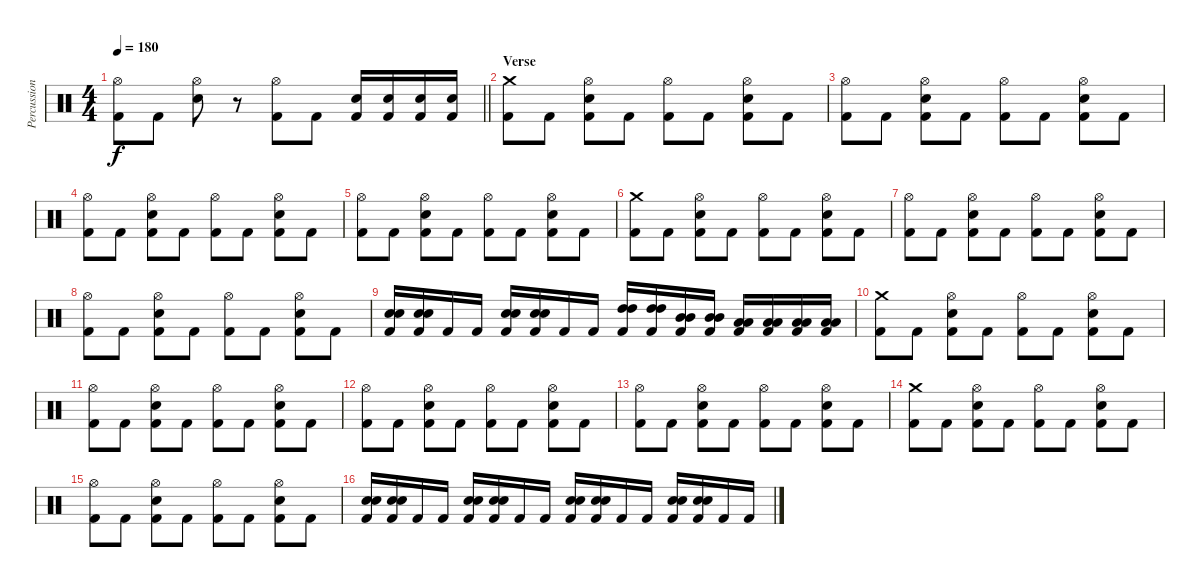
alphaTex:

\track ("Percussion" "Percussion") {instrument percussion}
\staff {score}
\articulation defaults
\ts (4 4)
\tempo 180
\clef neutral
\barLineRight lightlight
\ks c
("Hi-Hat (open)" "Kick (hit) 2").8{dy f} "Kick (hit) 2".8 ("Hi-Hat (open)" "Electric Snare (hit)").8 r.8 ("Hi-Hat (open)" "Kick (hit) 2").8 "Kick (hit) 2".8 ("Electric Snare (hit)" "Kick (hit) 2").16 ("Electric Snare (hit)" "Kick (hit) 2").16 ("Electric Snare (hit)" "Kick (hit) 2").16 ("Electric Snare (hit)" "Kick (hit) 2").16 |
\section ("" "Verse")
("Crash medium (hit)" "Kick (hit) 2").8 "Kick (hit) 2".8 ("Hi-Hat (open)" "Electric Snare (hit)" "Kick (hit) 2").8 "Kick (hit) 2".8 ("Hi-Hat (open)" "Kick (hit) 2").8 "Kick (hit) 2".8 ("Hi-Hat (open)" "Electric Snare (hit)" "Kick (hit) 2").8 "Kick (hit) 2".8 |
("Hi-Hat (open)" "Kick (hit) 2").8 "Kick (hit) 2".8 ("Hi-Hat (open)" "Electric Snare (hit)" "Kick (hit) 2").8 "Kick (hit) 2".8 ("Hi-Hat (open)" "Kick (hit) 2").8 "Kick (hit) 2".8 ("Hi-Hat (open)" "Electric Snare (hit)" "Kick (hit) 2").8 "Kick (hit) 2".8 |
("Hi-Hat (open)" "Kick (hit) 2").8 "Kick (hit) 2".8 ("Hi-Hat (open)" "Electric Snare (hit)" "Kick (hit) 2").8 "Kick (hit) 2".8 ("Hi-Hat (open)" "Kick (hit) 2").8 "Kick (hit) 2".8 ("Hi-Hat (open)" "Electric Snare (hit)" "Kick (hit) 2").8 "Kick (hit) 2".8 |
("Hi-Hat (open)" "Kick (hit) 2").8 "Kick (hit) 2".8 ("Hi-Hat (open)" "Electric Snare (hit)" "Kick (hit) 2").8 "Kick (hit) 2".8 ("Hi-Hat (open)" "Kick (hit) 2").8 "Kick (hit) 2".8 ("Hi-Hat (open)" "Electric Snare (hit)" "Kick (hit) 2").8 "Kick (hit) 2".8 |
("Crash medium (hit)" "Kick (hit) 2").8 "Kick (hit) 2".8 ("Hi-Hat (open)" "Electric Snare (hit)" "Kick (hit) 2").8 "Kick (hit) 2".8 ("Hi-Hat (open)" "Kick (hit) 2").8 "Kick (hit) 2".8 ("Hi-Hat (open)" "Electric Snare (hit)" "Kick (hit) 2").8 "Kick (hit) 2".8 |
("Hi-Hat (open)" "Kick (hit) 2").8 "Kick (hit) 2".8 ("Hi-Hat (open)" "Electric Snare (hit)" "Kick (hit) 2").8 "Kick (hit) 2".8 ("Hi-Hat (open)" "Kick (hit) 2").8 "Kick (hit) 2".8 ("Hi-Hat (open)" "Electric Snare (hit)" "Kick (hit) 2").8 "Kick (hit) 2".8 |
("Hi-Hat (open)" "Kick (hit) 2").8 "Kick (hit) 2".8 ("Hi-Hat (open)" "Electric Snare (hit)" "Kick (hit) 2").8 "Kick (hit) 2".8 ("Hi-Hat (open)" "Kick (hit) 2").8 "Kick (hit) 2".8 ("Hi-Hat (open)" "Electric Snare (hit)" "Kick (hit) 2").8 "Kick (hit) 2".8 |
("Electric Snare (hit)" "Electric Snare (hit)" "Kick (hit) 2").16 ("Electric Snare (hit)" "Electric Snare (hit)" "Kick (hit) 2").16 "Kick (hit) 2".16 "Kick (hit) 2".16 ("Electric Snare (hit)" "Electric Snare (hit)" "Kick (hit) 2").16 ("Electric Snare (hit)" "Electric Snare (hit)" "Kick (hit) 2").16 "Kick (hit) 2".16 "Kick (hit) 2".16 ("High Tom (hit)" "High Tom (hit)" "Kick (hit) 2").16 ("High Tom (hit)" "High Tom (hit)" "Kick (hit) 2").16 ("Mid Tom (hit)" "Mid Tom (hit)" "Kick (hit) 2").16 ("Mid Tom (hit)" "Mid Tom (hit)" "Kick (hit) 2").16 ("Low Tom (hit)" "Low Tom (hit)" "Kick (hit) 2").16 ("Low Tom (hit)" "Low Tom (hit)" "Kick (hit) 2").16 ("Low Floor Tom (hit)" "Low Floor Tom (hit)" "Kick (hit) 2").16 ("Low Floor Tom (hit)" "Low Floor Tom (hit)" "Kick (hit) 2").16 |
("Crash medium (hit)" "Kick (hit) 2").8 "Kick (hit) 2".8 ("Hi-Hat (open)" "Electric Snare (hit)" "Kick (hit) 2").8 "Kick (hit) 2".8 ("Hi-Hat (open)" "Kick (hit) 2").8 "Kick (hit) 2".8 ("Hi-Hat (open)" "Electric Snare (hit)" "Kick (hit) 2").8 "Kick (hit) 2".8 |
("Hi-Hat (open)" "Kick (hit) 2").8 "Kick (hit) 2".8 ("Hi-Hat (open)" "Electric Snare (hit)" "Kick (hit) 2").8 "Kick (hit) 2".8 ("Hi-Hat (open)" "Kick (hit) 2").8 "Kick (hit) 2".8 ("Hi-Hat (open)" "Electric Snare (hit)" "Kick (hit) 2").8 "Kick (hit) 2".8 |
("Hi-Hat (open)" "Kick (hit) 2").8 "Kick (hit) 2".8 ("Hi-Hat (open)" "Electric Snare (hit)" "Kick (hit) 2").8 "Kick (hit) 2".8 ("Hi-Hat (open)" "Kick (hit) 2").8 "Kick (hit) 2".8 ("Hi-Hat (open)" "Electric Snare (hit)" "Kick (hit) 2").8 "Kick (hit) 2".8 |
("Hi-Hat (open)" "Kick (hit) 2").8 "Kick (hit) 2".8 ("Hi-Hat (open)" "Electric Snare (hit)" "Kick (hit) 2").8 "Kick (hit) 2".8 ("Hi-Hat (open)" "Kick (hit) 2").8 "Kick (hit) 2".8 ("Hi-Hat (open)" "Electric Snare (hit)" "Kick (hit) 2").8 "Kick (hit) 2".8 |
("Crash medium (hit)" "Kick (hit) 2").8 "Kick (hit) 2".8 ("Hi-Hat (open)" "Electric Snare (hit)" "Kick (hit) 2").8 "Kick (hit) 2".8 ("Hi-Hat (open)" "Kick (hit) 2").8 "Kick (hit) 2".8 ("Hi-Hat (open)" "Electric Snare (hit)" "Kick (hit) 2").8 "Kick (hit) 2".8 |
("Hi-Hat (open)" "Kick (hit) 2").8 "Kick (hit) 2".8 ("Hi-Hat (open)" "Electric Snare (hit)" "Kick (hit) 2").8 "Kick (hit) 2".8 ("Hi-Hat (open)" "Kick (hit) 2").8 "Kick (hit) 2".8 ("Hi-Hat (open)" "Electric Snare (hit)" "Kick (hit) 2").8 "Kick (hit) 2".8 |
("Electric Snare (hit)" "Electric Snare (hit)" "Kick (hit) 2").16 ("Electric Snare (hit)" "Electric Snare (hit)" "Kick (hit) 2").16 "Kick (hit) 2".16 "Kick (hit) 2".16 ("Electric Snare (hit)" "Electric Snare (hit)" "Kick (hit) 2").16 ("Electric Snare (hit)" "Electric Snare (hit)" "Kick (hit) 2").16 "Kick (hit) 2".16 "Kick (hit) 2".16 ("Electric Snare (hit)" "Electric Snare (hit)" "Kick (hit) 2").16 ("Electric Snare (hit)" "Electric Snare (hit)" "Kick (hit) 2").16 "Kick (hit) 2".16 "Kick (hit) 2".16 ("Electric Snare (hit)" "Electric Snare (hit)" "Kick (hit) 2").16 ("Electric Snare (hit)" "Electric Snare (hit)" "Kick (hit) 2").16 "Kick (hit) 2".16 "Kick (hit) 2".16
